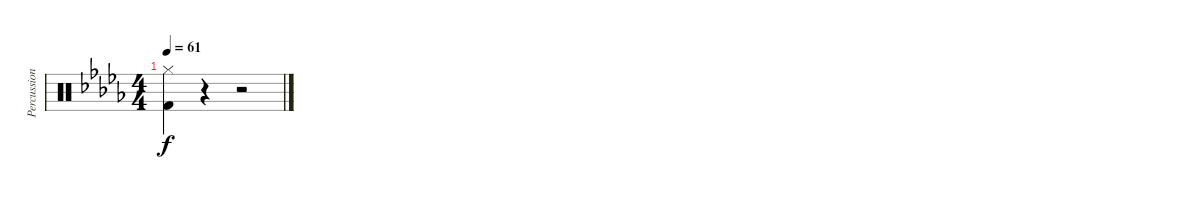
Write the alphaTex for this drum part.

\track ("Percussions" "Percussion") {instrument percussion}
\staff {score}
\articulation defaults
\ts (4 4)
\tempo 61
\clef neutral
\ks db
("Hi-Hat (closed)" "Kick (hit) 2").4{dy f} r.4 r.2
